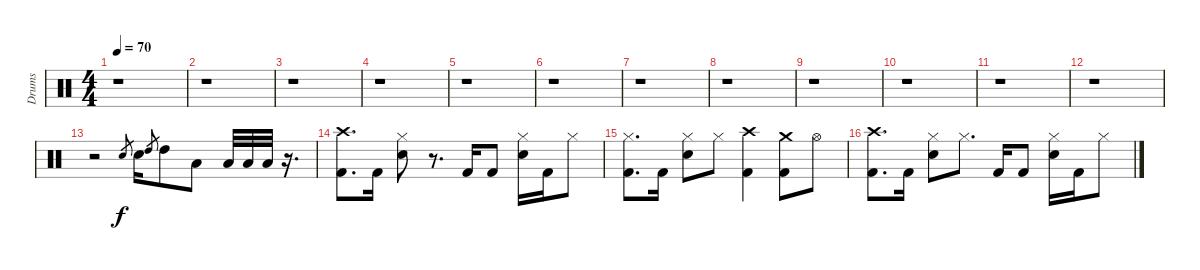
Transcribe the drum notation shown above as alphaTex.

\track ("Drums" "Drums") {instrument percussion}
\staff {score}
\articulation defaults
\ts (4 4)
\tempo 70
\clef neutral
\ks c
r.1{dy f} |
r.1 |
r.1 |
r.1 |
r.1 |
r.1 |
r.1 |
r.1 |
r.1 |
r.1 |
r.1 |
r.1 |
r.2 "Snare (hit) 2".8{gr} "Snare (hit) 2".16 "High Tom (hit)".8{gr} "High Tom (hit)".8 "Low Tom (hit)".8 "Low Tom (hit)".32 "Low Tom (hit)".32 "Low Tom (hit)".32 r.16{d} |
("Kick (hit) 2" "Crash high (hit)").8{d} "Kick (hit) 2".16 ("Snare (hit) 2" "Hi-Hat (closed)").8 r.8{d} "Kick (hit) 2".16 "Kick (hit) 2".8 ("Snare (hit) 2" "Hi-Hat (closed)").16 "Kick (hit) 2".16 "Hi-Hat (closed)".8 |
("Kick (hit) 2" "Hi-Hat (closed)").8{d} "Kick (hit) 2".16 ("Snare (hit) 2" "Hi-Hat (closed)").8 "Hi-Hat (closed)".8 ("Kick (hit) 2" "Crash high (hit)").4 ("Kick (hit) 2" "Crash medium (hit)").8 "Hi-Hat (open)".8 |
("Kick (hit) 2" "Crash high (hit)").8{d} "Kick (hit) 2".16 ("Snare (hit) 2" "Hi-Hat (closed)").8 "Hi-Hat (closed)".8{d} "Kick (hit) 2".16 "Kick (hit) 2".8 ("Snare (hit) 2" "Hi-Hat (closed)").16 "Kick (hit) 2".16 "Hi-Hat (closed)".8
